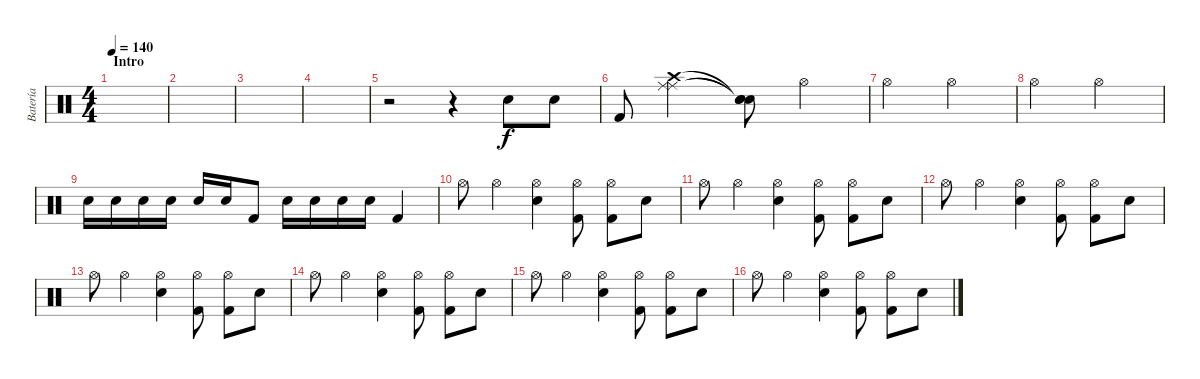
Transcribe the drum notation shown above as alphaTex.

\track ("Batería" "Batería") {instrument percussion}
\staff {score}
\articulation defaults
\ts (4 4)
\section ("" "Intro")
\tempo 140
\clef neutral
\ks c
|
|
|
|
r.2 r.4 "Snare (hit) 2".8 "Snare (hit) 2".8 |
"Kick (hit) 2".8 ("Ride (middle)" "Ride (middle)" "Crash high (hit)").2 ("Snare (hit)"{t} "Snare (hit)"{t} "Snare (hit)"{t}).8 "Hi-Hat (open)".4 |
"Hi-Hat (open)".2 "Hi-Hat (open)".2 |
"Hi-Hat (open)".2 "Hi-Hat (open)".2 |
"Snare (hit) 2".16 "Snare (hit) 2".16 "Snare (hit) 2".16 "Snare (hit) 2".16 "Snare (hit) 2".16 "Snare (hit) 2".16 "Kick (hit) 2".8 "Snare (hit) 2".16 "Snare (hit) 2".16 "Snare (hit) 2".16 "Snare (hit) 2".16 "Kick (hit) 2".4 |
"Hi-Hat (open)".8 "Hi-Hat (open)".4 ("Hi-Hat (open)" "Snare (hit) 2").4 ("Hi-Hat (open)" "Kick (hit) 2").8 ("Hi-Hat (open)" "Kick (hit) 2").8 "Snare (hit) 2".8 |
"Hi-Hat (open)".8 "Hi-Hat (open)".4 ("Hi-Hat (open)" "Snare (hit) 2").4 ("Hi-Hat (open)" "Kick (hit) 2").8 ("Hi-Hat (open)" "Kick (hit) 2").8 "Snare (hit) 2".8 |
"Hi-Hat (open)".8 "Hi-Hat (open)".4 ("Hi-Hat (open)" "Snare (hit) 2").4 ("Hi-Hat (open)" "Kick (hit) 2").8 ("Hi-Hat (open)" "Kick (hit) 2").8 "Snare (hit) 2".8 |
"Hi-Hat (open)".8 "Hi-Hat (open)".4 ("Hi-Hat (open)" "Snare (hit) 2").4 ("Hi-Hat (open)" "Kick (hit) 2").8 ("Hi-Hat (open)" "Kick (hit) 2").8 "Snare (hit) 2".8 |
"Hi-Hat (open)".8 "Hi-Hat (open)".4 ("Hi-Hat (open)" "Snare (hit) 2").4 ("Hi-Hat (open)" "Kick (hit) 2").8 ("Hi-Hat (open)" "Kick (hit) 2").8 "Snare (hit) 2".8 |
"Hi-Hat (open)".8 "Hi-Hat (open)".4 ("Hi-Hat (open)" "Snare (hit) 2").4 ("Hi-Hat (open)" "Kick (hit) 2").8 ("Hi-Hat (open)" "Kick (hit) 2").8 "Snare (hit) 2".8 |
"Hi-Hat (open)".8 "Hi-Hat (open)".4 ("Hi-Hat (open)" "Snare (hit) 2").4 ("Hi-Hat (open)" "Kick (hit) 2").8 ("Hi-Hat (open)" "Kick (hit) 2").8 "Snare (hit) 2".8
